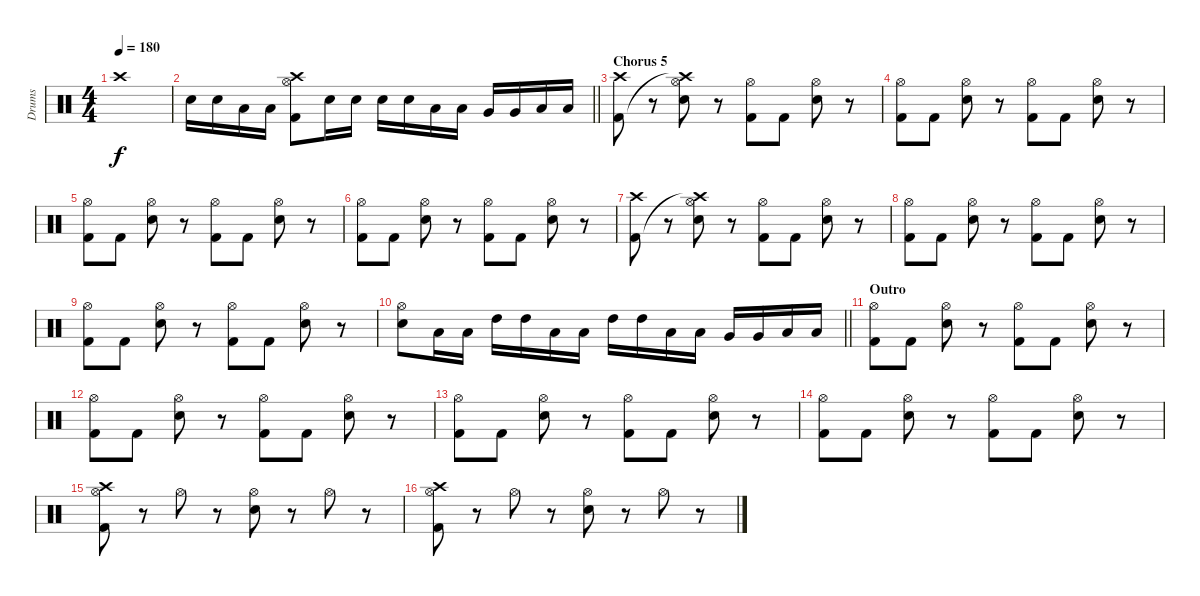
\track ("Drums" "Drums") {instrument percussion}
\staff {score}
\articulation defaults
\ts (4 4)
\tempo 180
\clef neutral
\ks c "Crash high (hit)".1{dy f}
|
\barLineRight lightlight "Snare (hit) 2".16 "Snare (hit) 2".16 "Low Tom (hit)".16 "Low Tom (hit)".16
("Hi-Hat (open)" "Crash high (hit)" "Kick (hit) 2").8 "Snare (hit) 2".16 "Snare (hit) 2".16 "Snare (hit) 2".16 "Snare (hit) 2".16 "Low Tom (hit)".16 "Low Tom (hit)".16 "Very Low Tom (hit)".16 "Very Low Tom (hit)".16 "Low Floor Tom (hit)".16 "Low Floor Tom (hit)".16 |
\section ("" "Chorus 5")
("Crash high (hit)" "Kick (hit) 2").8 r.8 ("Hi-Hat (open)" "Crash high (hit)"{t} "Snare (hit) 2").8 r.8 ("Hi-Hat (open)" "Kick (hit) 2").8 "Kick (hit) 2".8 ("Hi-Hat (open)" "Snare (hit) 2").8 r.8 |
("Hi-Hat (open)" "Kick (hit) 2").8 "Kick (hit) 2".8 ("Hi-Hat (open)" "Snare (hit) 2").8 r.8 ("Hi-Hat (open)" "Kick (hit) 2").8 "Kick (hit) 2".8 ("Hi-Hat (open)" "Snare (hit) 2").8 r.8 |
("Hi-Hat (open)" "Kick (hit) 2").8 "Kick (hit) 2".8 ("Hi-Hat (open)" "Snare (hit) 2").8 r.8 ("Hi-Hat (open)" "Kick (hit) 2").8 "Kick (hit) 2".8 ("Hi-Hat (open)" "Snare (hit) 2").8 r.8 |
("Hi-Hat (open)" "Kick (hit) 2").8 "Kick (hit) 2".8 ("Hi-Hat (open)" "Snare (hit) 2").8 r.8 ("Hi-Hat (open)" "Kick (hit) 2").8 "Kick (hit) 2".8 ("Hi-Hat (open)" "Snare (hit) 2").8 r.8 |
("Crash high (hit)" "Kick (hit) 2").8 r.8 ("Hi-Hat (open)" "Crash high (hit)"{t} "Snare (hit) 2").8 r.8 ("Hi-Hat (open)" "Kick (hit) 2").8 "Kick (hit) 2".8 ("Hi-Hat (open)" "Snare (hit) 2").8 r.8 |
("Hi-Hat (open)" "Kick (hit) 2").8 "Kick (hit) 2".8 ("Hi-Hat (open)" "Snare (hit) 2").8 r.8 ("Hi-Hat (open)" "Kick (hit) 2").8 "Kick (hit) 2".8 ("Hi-Hat (open)" "Snare (hit) 2").8 r.8 |
("Hi-Hat (open)" "Kick (hit) 2").8 "Kick (hit) 2".8 ("Hi-Hat (open)" "Snare (hit) 2").8 r.8 ("Hi-Hat (open)" "Kick (hit) 2").8 "Kick (hit) 2".8 ("Hi-Hat (open)" "Snare (hit) 2").8 r.8 |
\barLineRight lightlight
("Hi-Hat (open)" "Snare (hit) 2").8 "Low Tom (hit)".16 "Low Tom (hit)".16 "High Tom (hit)".16 "High Tom (hit)".16 "Low Tom (hit)".16 "Low Tom (hit)".16 "High Tom (hit)".16 "High Tom (hit)".16 "Low Tom (hit)".16 "Low Tom (hit)".16 "Very Low Tom (hit)".16 "Very Low Tom (hit)".16 "Low Floor Tom (hit)".16 "Low Floor Tom (hit)".16 |
\section ("" "Outro")
("Hi-Hat (open)" "Kick (hit) 2").8 "Kick (hit) 2".8 ("Hi-Hat (open)" "Snare (hit) 2").8 r.8 ("Hi-Hat (open)" "Kick (hit) 2").8 "Kick (hit) 2".8 ("Hi-Hat (open)" "Snare (hit) 2").8 r.8 |
("Hi-Hat (open)" "Kick (hit) 2").8 "Kick (hit) 2".8 ("Hi-Hat (open)" "Snare (hit) 2").8 r.8 ("Hi-Hat (open)" "Kick (hit) 2").8 "Kick (hit) 2".8 ("Hi-Hat (open)" "Snare (hit) 2").8 r.8 |
("Hi-Hat (open)" "Kick (hit) 2").8 "Kick (hit) 2".8 ("Hi-Hat (open)" "Snare (hit) 2").8 r.8 ("Hi-Hat (open)" "Kick (hit) 2").8 "Kick (hit) 2".8 ("Hi-Hat (open)" "Snare (hit) 2").8 r.8 |
("Hi-Hat (open)" "Kick (hit) 2").8 "Kick (hit) 2".8 ("Hi-Hat (open)" "Snare (hit) 2").8 r.8 ("Hi-Hat (open)" "Kick (hit) 2").8 "Kick (hit) 2".8 ("Hi-Hat (open)" "Snare (hit) 2").8 r.8 |
("Hi-Hat (open)" "Crash high (hit)" "Kick (hit) 2").8 r.8 "Hi-Hat (open)".8 r.8 ("Hi-Hat (open)" "Snare (hit) 2").8 r.8 "Hi-Hat (open)".8 r.8 |
("Hi-Hat (open)" "Crash high (hit)" "Kick (hit) 2").8 r.8 "Hi-Hat (open)".8 r.8 ("Hi-Hat (open)" "Snare (hit) 2").8 r.8 "Hi-Hat (open)".8 r.8
